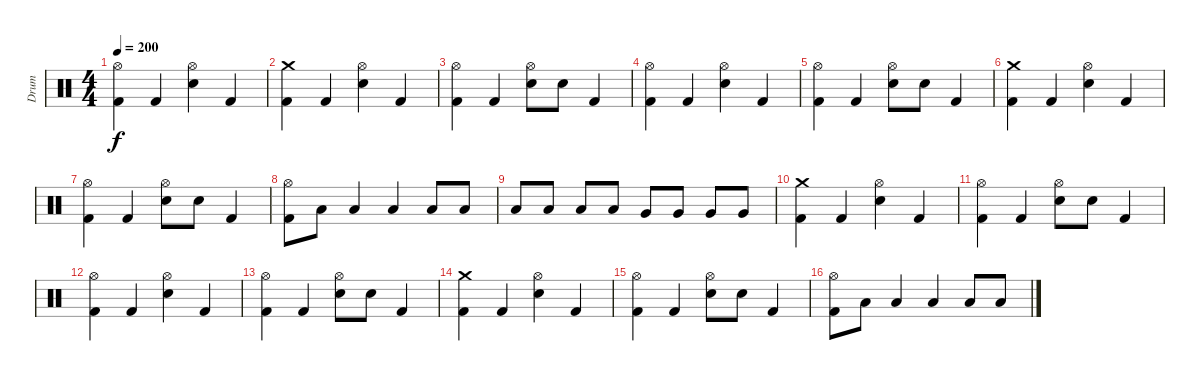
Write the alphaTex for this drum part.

\track ("Drum" "Drum") {instrument percussion}
\staff {score}
\articulation defaults
\ts (4 4)
\tempo 200
\clef neutral
\ks c
("Hi-Hat (open)" "Kick (hit) 2").4{dy f} "Kick (hit) 2".4 ("Electric Snare (hit)" "Hi-Hat (open)").4 "Kick (hit) 2".4 |
("Crash medium (hit)" "Kick (hit) 2").4 "Kick (hit) 2".4 ("Electric Snare (hit)" "Hi-Hat (open)").4 "Kick (hit) 2".4 |
("Hi-Hat (open)" "Kick (hit) 2").4 "Kick (hit) 2".4 ("Electric Snare (hit)" "Hi-Hat (open)").8 "Electric Snare (hit)".8 "Kick (hit) 2".4 |
("Hi-Hat (open)" "Kick (hit) 2").4 "Kick (hit) 2".4 ("Electric Snare (hit)" "Hi-Hat (open)").4 "Kick (hit) 2".4 |
("Hi-Hat (open)" "Kick (hit) 2").4 "Kick (hit) 2".4 ("Electric Snare (hit)" "Hi-Hat (open)").8 "Electric Snare (hit)".8 "Kick (hit) 2".4 |
("Crash medium (hit)" "Kick (hit) 2").4 "Kick (hit) 2".4 ("Electric Snare (hit)" "Hi-Hat (open)").4 "Kick (hit) 2".4 |
("Hi-Hat (open)" "Kick (hit) 2").4 "Kick (hit) 2".4 ("Electric Snare (hit)" "Hi-Hat (open)").8 "Electric Snare (hit)".8 "Kick (hit) 2".4 |
("Hi-Hat (open)" "Kick (hit) 2").8 "Low Tom (hit)".8 "Low Tom (hit)".4 "Low Tom (hit)".4 "Low Tom (hit)".8 "Low Tom (hit)".8 |
"Low Tom (hit)".8 "Low Tom (hit)".8 "Low Tom (hit)".8 "Low Tom (hit)".8 "Very Low Tom (hit)".8 "Very Low Tom (hit)".8 "Very Low Tom (hit)".8 "Very Low Tom (hit)".8 |
("Crash medium (hit)" "Kick (hit) 2").4 "Kick (hit) 2".4 ("Electric Snare (hit)" "Hi-Hat (open)").4 "Kick (hit) 2".4 |
("Hi-Hat (open)" "Kick (hit) 2").4 "Kick (hit) 2".4 ("Electric Snare (hit)" "Hi-Hat (open)").8 "Electric Snare (hit)".8 "Kick (hit) 2".4 |
("Hi-Hat (open)" "Kick (hit) 2").4 "Kick (hit) 2".4 ("Electric Snare (hit)" "Hi-Hat (open)").4 "Kick (hit) 2".4 |
("Hi-Hat (open)" "Kick (hit) 2").4 "Kick (hit) 2".4 ("Electric Snare (hit)" "Hi-Hat (open)").8 "Electric Snare (hit)".8 "Kick (hit) 2".4 |
("Crash medium (hit)" "Kick (hit) 2").4 "Kick (hit) 2".4 ("Electric Snare (hit)" "Hi-Hat (open)").4 "Kick (hit) 2".4 |
("Hi-Hat (open)" "Kick (hit) 2").4 "Kick (hit) 2".4 ("Electric Snare (hit)" "Hi-Hat (open)").8 "Electric Snare (hit)".8 "Kick (hit) 2".4 |
("Hi-Hat (open)" "Kick (hit) 2").8 "Low Tom (hit)".8 "Low Tom (hit)".4 "Low Tom (hit)".4 "Low Tom (hit)".8 "Low Tom (hit)".8
